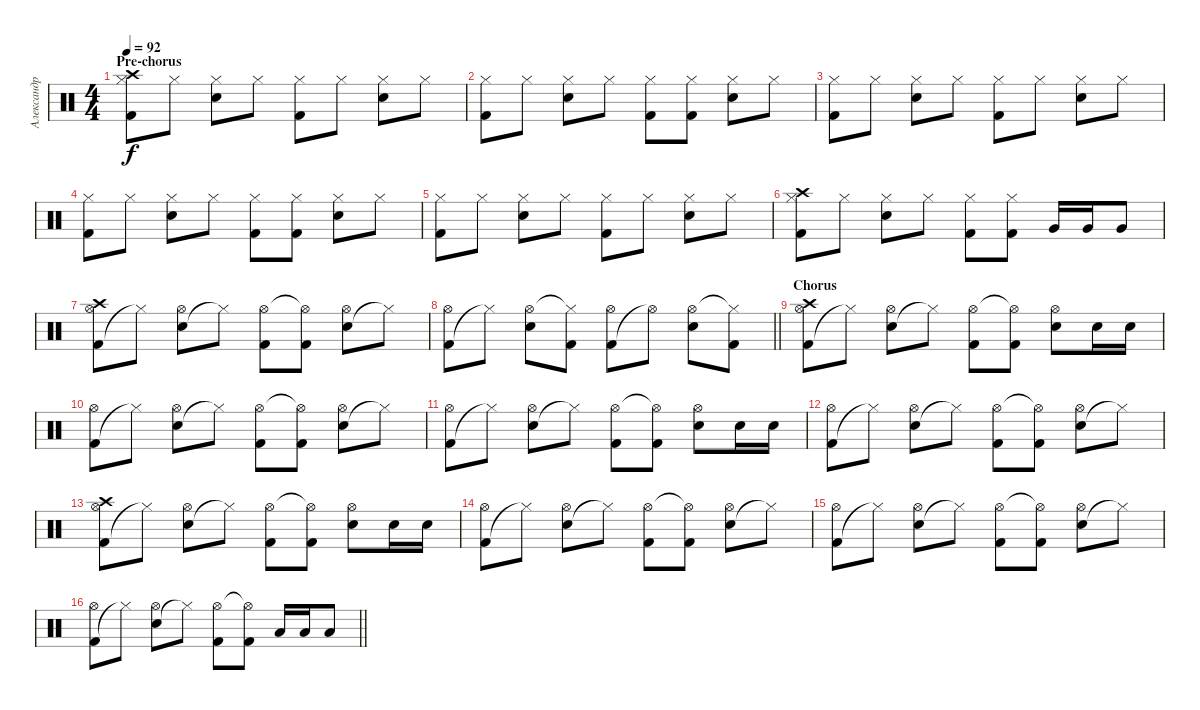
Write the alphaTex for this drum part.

\track ("Александр Барзилович" "Александр ") {instrument percussion}
\staff {score}
\articulation defaults
\ts (4 4)
\section ("" "Pre-chorus")
\tempo 92
\clef neutral
\ks c
("Kick (hit) 2" "Hi-Hat (closed)" "Crash high (hit)").8{dy f} "Hi-Hat (closed)".8 ("Electric Snare (hit)" "Hi-Hat (closed)").8 "Hi-Hat (closed)".8 ("Kick (hit) 2" "Hi-Hat (closed)").8 "Hi-Hat (closed)".8 ("Electric Snare (hit)" "Hi-Hat (closed)").8 "Hi-Hat (closed)".8 |
("Kick (hit) 2" "Hi-Hat (closed)").8 "Hi-Hat (closed)".8 ("Electric Snare (hit)" "Hi-Hat (closed)").8 "Hi-Hat (closed)".8 ("Kick (hit) 2" "Hi-Hat (closed)").8 ("Kick (hit) 2" "Hi-Hat (closed)").8 ("Electric Snare (hit)" "Hi-Hat (closed)").8 "Hi-Hat (closed)".8 |
("Kick (hit) 2" "Hi-Hat (closed)").8 "Hi-Hat (closed)".8 ("Electric Snare (hit)" "Hi-Hat (closed)").8 "Hi-Hat (closed)".8 ("Kick (hit) 2" "Hi-Hat (closed)").8 "Hi-Hat (closed)".8 ("Electric Snare (hit)" "Hi-Hat (closed)").8 "Hi-Hat (closed)".8 |
("Kick (hit) 2" "Hi-Hat (closed)").8 "Hi-Hat (closed)".8 ("Electric Snare (hit)" "Hi-Hat (closed)").8 "Hi-Hat (closed)".8 ("Kick (hit) 2" "Hi-Hat (closed)").8 ("Kick (hit) 2" "Hi-Hat (closed)").8 ("Electric Snare (hit)" "Hi-Hat (closed)").8 "Hi-Hat (closed)".8 |
("Kick (hit) 2" "Hi-Hat (closed)").8 "Hi-Hat (closed)".8 ("Electric Snare (hit)" "Hi-Hat (closed)").8 "Hi-Hat (closed)".8 ("Kick (hit) 2" "Hi-Hat (closed)").8 "Hi-Hat (closed)".8 ("Electric Snare (hit)" "Hi-Hat (closed)").8 "Hi-Hat (closed)".8 |
("Kick (hit) 2" "Hi-Hat (closed)" "Crash high (hit)").8 "Hi-Hat (closed)".8 ("Electric Snare (hit)" "Hi-Hat (closed)").8 "Hi-Hat (closed)".8 ("Kick (hit) 2" "Hi-Hat (closed)").8 ("Kick (hit) 2" "Hi-Hat (closed)").8 "Very Low Tom (hit)".16 "Very Low Tom (hit)".16 "Very Low Tom (hit)".8 |
("Kick (hit) 2" "Hi-Hat (open)" "Crash high (hit)").8 "Hi-Hat (closed)"{t}.8 ("Electric Snare (hit)" "Hi-Hat (open)").8 "Hi-Hat (closed)"{t}.8 ("Kick (hit) 2" "Hi-Hat (open)").8 ("Kick (hit) 2" "Hi-Hat (open)"{t}).8 ("Electric Snare (hit)" "Hi-Hat (open)").8 "Hi-Hat (closed)"{t}.8 |
\barLineRight lightlight
("Kick (hit) 2" "Hi-Hat (open)").8 "Hi-Hat (closed)"{t}.8 ("Electric Snare (hit)" "Hi-Hat (open)").8 ("Kick (hit) 2" "Hi-Hat (closed)"{t}).8 ("Kick (hit) 2" "Hi-Hat (open)").8 "Hi-Hat (open)"{t}.8 ("Electric Snare (hit)" "Hi-Hat (open)").8 ("Kick (hit) 2" "Hi-Hat (closed)"{t}).8 |
\section ("" "Chorus")
("Kick (hit) 2" "Hi-Hat (open)" "Crash high (hit)").8 "Hi-Hat (closed)"{t}.8 ("Electric Snare (hit)" "Hi-Hat (open)").8 "Hi-Hat (closed)"{t}.8 ("Kick (hit) 2" "Hi-Hat (open)").8 ("Kick (hit) 2" "Hi-Hat (open)"{t}).8 ("Electric Snare (hit)" "Hi-Hat (open)").8 "Electric Snare (hit)".16 "Electric Snare (hit)".16 |
("Kick (hit) 2" "Hi-Hat (open)").8 "Hi-Hat (closed)"{t}.8 ("Electric Snare (hit)" "Hi-Hat (open)").8 "Hi-Hat (closed)"{t}.8 ("Kick (hit) 2" "Hi-Hat (open)").8 ("Kick (hit) 2" "Hi-Hat (open)"{t}).8 ("Electric Snare (hit)" "Hi-Hat (open)").8 "Hi-Hat (closed)"{t}.8 |
("Kick (hit) 2" "Hi-Hat (open)").8 "Hi-Hat (closed)"{t}.8 ("Electric Snare (hit)" "Hi-Hat (open)").8 "Hi-Hat (closed)"{t}.8 ("Kick (hit) 2" "Hi-Hat (open)").8 ("Kick (hit) 2" "Hi-Hat (open)"{t}).8 ("Electric Snare (hit)" "Hi-Hat (open)").8 "Electric Snare (hit)".16 "Electric Snare (hit)".16 |
("Kick (hit) 2" "Hi-Hat (open)").8 "Hi-Hat (closed)"{t}.8 ("Electric Snare (hit)" "Hi-Hat (open)").8 "Hi-Hat (closed)"{t}.8 ("Kick (hit) 2" "Hi-Hat (open)").8 ("Kick (hit) 2" "Hi-Hat (open)"{t}).8 ("Electric Snare (hit)" "Hi-Hat (open)").8 "Hi-Hat (closed)"{t}.8 |
("Kick (hit) 2" "Hi-Hat (open)" "Crash high (hit)").8 "Hi-Hat (closed)"{t}.8 ("Electric Snare (hit)" "Hi-Hat (open)").8 "Hi-Hat (closed)"{t}.8 ("Kick (hit) 2" "Hi-Hat (open)").8 ("Kick (hit) 2" "Hi-Hat (open)"{t}).8 ("Electric Snare (hit)" "Hi-Hat (open)").8 "Electric Snare (hit)".16 "Electric Snare (hit)".16 |
("Kick (hit) 2" "Hi-Hat (open)").8 "Hi-Hat (closed)"{t}.8 ("Electric Snare (hit)" "Hi-Hat (open)").8 "Hi-Hat (closed)"{t}.8 ("Kick (hit) 2" "Hi-Hat (open)").8 ("Kick (hit) 2" "Hi-Hat (open)"{t}).8 ("Electric Snare (hit)" "Hi-Hat (open)").8 "Hi-Hat (closed)"{t}.8 |
("Kick (hit) 2" "Hi-Hat (open)").8 "Hi-Hat (closed)"{t}.8 ("Electric Snare (hit)" "Hi-Hat (open)").8 "Hi-Hat (closed)"{t}.8 ("Kick (hit) 2" "Hi-Hat (open)").8 ("Kick (hit) 2" "Hi-Hat (open)"{t}).8 ("Electric Snare (hit)" "Hi-Hat (open)").8 "Hi-Hat (closed)"{t}.8 |
\barLineRight lightlight
("Kick (hit) 2" "Hi-Hat (open)").8 "Hi-Hat (closed)"{t}.8 ("Electric Snare (hit)" "Hi-Hat (open)").8 "Hi-Hat (closed)"{t}.8 ("Kick (hit) 2" "Hi-Hat (open)").8 ("Kick (hit) 2" "Hi-Hat (open)"{t}).8 "Low Floor Tom (hit)".16 "Low Floor Tom (hit)".16 "Low Floor Tom (hit)".8
